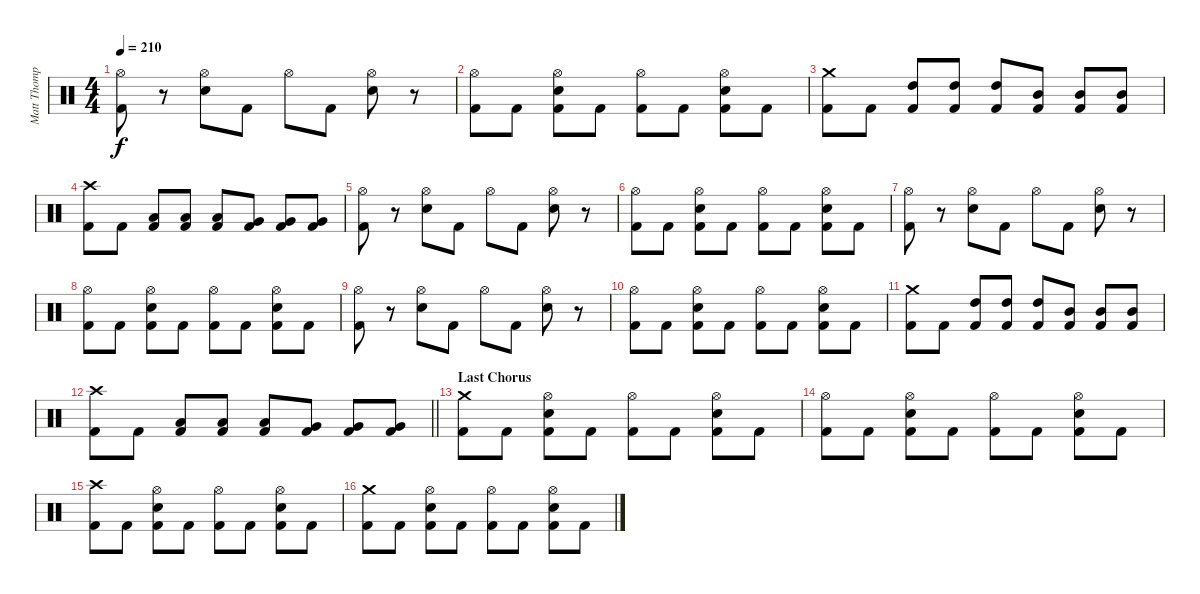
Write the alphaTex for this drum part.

\track ("Matt Thompson" "Matt Thomp") {instrument percussion}
\staff {score}
\articulation defaults
\ts (4 4)
\tempo 210
\clef neutral
\ks c
("Hi-Hat (open)" "Kick (hit) 2").8{dy f} r.8 ("Hi-Hat (open)" "Electric Snare (hit)").8 "Kick (hit) 2".8 "Hi-Hat (open)".8 "Kick (hit) 2".8 ("Hi-Hat (open)" "Electric Snare (hit)").8 r.8 |
("Hi-Hat (open)" "Kick (hit) 2").8 "Kick (hit) 2".8 ("Hi-Hat (open)" "Electric Snare (hit)" "Kick (hit) 2").8 "Kick (hit) 2".8 ("Hi-Hat (open)" "Kick (hit) 2").8 "Kick (hit) 2".8 ("Hi-Hat (open)" "Electric Snare (hit)" "Kick (hit) 2").8 "Kick (hit) 2".8 |
("Crash medium (hit)" "Kick (hit) 2").8 "Kick (hit) 2".8 ("High Tom (hit)" "Kick (hit) 2").8 ("High Tom (hit)" "Kick (hit) 2").8 ("High Tom (hit)" "Kick (hit) 2").8 ("Mid Tom (hit)" "Kick (hit) 2").8 ("Mid Tom (hit)" "Kick (hit) 2").8 ("Mid Tom (hit)" "Kick (hit) 2").8 |
("Crash high (hit)" "Kick (hit) 2").8 "Kick (hit) 2".8 ("Low Tom (hit)" "Kick (hit) 2").8 ("Low Tom (hit)" "Kick (hit) 2").8 ("Low Tom (hit)" "Kick (hit) 2").8 ("Very Low Tom (hit)" "Kick (hit) 2").8 ("Very Low Tom (hit)" "Kick (hit) 2").8 ("Very Low Tom (hit)" "Kick (hit) 2").8 |
("Hi-Hat (open)" "Kick (hit) 2").8 r.8 ("Hi-Hat (open)" "Electric Snare (hit)").8 "Kick (hit) 2".8 "Hi-Hat (open)".8 "Kick (hit) 2".8 ("Hi-Hat (open)" "Electric Snare (hit)").8 r.8 |
("Hi-Hat (open)" "Kick (hit) 2").8 "Kick (hit) 2".8 ("Hi-Hat (open)" "Electric Snare (hit)" "Kick (hit) 2").8 "Kick (hit) 2".8 ("Hi-Hat (open)" "Kick (hit) 2").8 "Kick (hit) 2".8 ("Hi-Hat (open)" "Electric Snare (hit)" "Kick (hit) 2").8 "Kick (hit) 2".8 |
("Hi-Hat (open)" "Kick (hit) 2").8 r.8 ("Hi-Hat (open)" "Electric Snare (hit)").8 "Kick (hit) 2".8 "Hi-Hat (open)".8 "Kick (hit) 2".8 ("Hi-Hat (open)" "Electric Snare (hit)").8 r.8 |
("Hi-Hat (open)" "Kick (hit) 2").8 "Kick (hit) 2".8 ("Hi-Hat (open)" "Electric Snare (hit)" "Kick (hit) 2").8 "Kick (hit) 2".8 ("Hi-Hat (open)" "Kick (hit) 2").8 "Kick (hit) 2".8 ("Hi-Hat (open)" "Electric Snare (hit)" "Kick (hit) 2").8 "Kick (hit) 2".8 |
("Hi-Hat (open)" "Kick (hit) 2").8 r.8 ("Hi-Hat (open)" "Electric Snare (hit)").8 "Kick (hit) 2".8 "Hi-Hat (open)".8 "Kick (hit) 2".8 ("Hi-Hat (open)" "Electric Snare (hit)").8 r.8 |
("Hi-Hat (open)" "Kick (hit) 2").8 "Kick (hit) 2".8 ("Hi-Hat (open)" "Electric Snare (hit)" "Kick (hit) 2").8 "Kick (hit) 2".8 ("Hi-Hat (open)" "Kick (hit) 2").8 "Kick (hit) 2".8 ("Hi-Hat (open)" "Electric Snare (hit)" "Kick (hit) 2").8 "Kick (hit) 2".8 |
("Crash medium (hit)" "Kick (hit) 2").8 "Kick (hit) 2".8 ("High Tom (hit)" "Kick (hit) 2").8 ("High Tom (hit)" "Kick (hit) 2").8 ("High Tom (hit)" "Kick (hit) 2").8 ("Mid Tom (hit)" "Kick (hit) 2").8 ("Mid Tom (hit)" "Kick (hit) 2").8 ("Mid Tom (hit)" "Kick (hit) 2").8 |
\barLineRight lightlight
("Crash high (hit)" "Kick (hit) 2").8 "Kick (hit) 2".8 ("Low Tom (hit)" "Kick (hit) 2").8 ("Low Tom (hit)" "Kick (hit) 2").8 ("Low Tom (hit)" "Kick (hit) 2").8 ("Very Low Tom (hit)" "Kick (hit) 2").8 ("Very Low Tom (hit)" "Kick (hit) 2").8 ("Very Low Tom (hit)" "Kick (hit) 2").8 |
\section ("" "Last Chorus")
("Crash medium (hit)" "Kick (hit) 2").8 "Kick (hit) 2".8 ("Hi-Hat (open)" "Electric Snare (hit)" "Kick (hit) 2").8 "Kick (hit) 2".8 ("Hi-Hat (open)" "Kick (hit) 2").8 "Kick (hit) 2".8 ("Hi-Hat (open)" "Electric Snare (hit)" "Kick (hit) 2").8 "Kick (hit) 2".8 |
("Hi-Hat (open)" "Kick (hit) 2").8 "Kick (hit) 2".8 ("Hi-Hat (open)" "Electric Snare (hit)" "Kick (hit) 2").8 "Kick (hit) 2".8 ("Hi-Hat (open)" "Kick (hit) 2").8 "Kick (hit) 2".8 ("Hi-Hat (open)" "Electric Snare (hit)" "Kick (hit) 2").8 "Kick (hit) 2".8 |
("Crash high (hit)" "Kick (hit) 2").8 "Kick (hit) 2".8 ("Hi-Hat (open)" "Electric Snare (hit)" "Kick (hit) 2").8 "Kick (hit) 2".8 ("Hi-Hat (open)" "Kick (hit) 2").8 "Kick (hit) 2".8 ("Hi-Hat (open)" "Electric Snare (hit)" "Kick (hit) 2").8 "Kick (hit) 2".8 |
("Crash medium (hit)" "Kick (hit) 2").8 "Kick (hit) 2".8 ("Hi-Hat (open)" "Electric Snare (hit)" "Kick (hit) 2").8 "Kick (hit) 2".8 ("Hi-Hat (open)" "Kick (hit) 2").8 "Kick (hit) 2".8 ("Hi-Hat (open)" "Electric Snare (hit)" "Kick (hit) 2").8 "Kick (hit) 2".8
